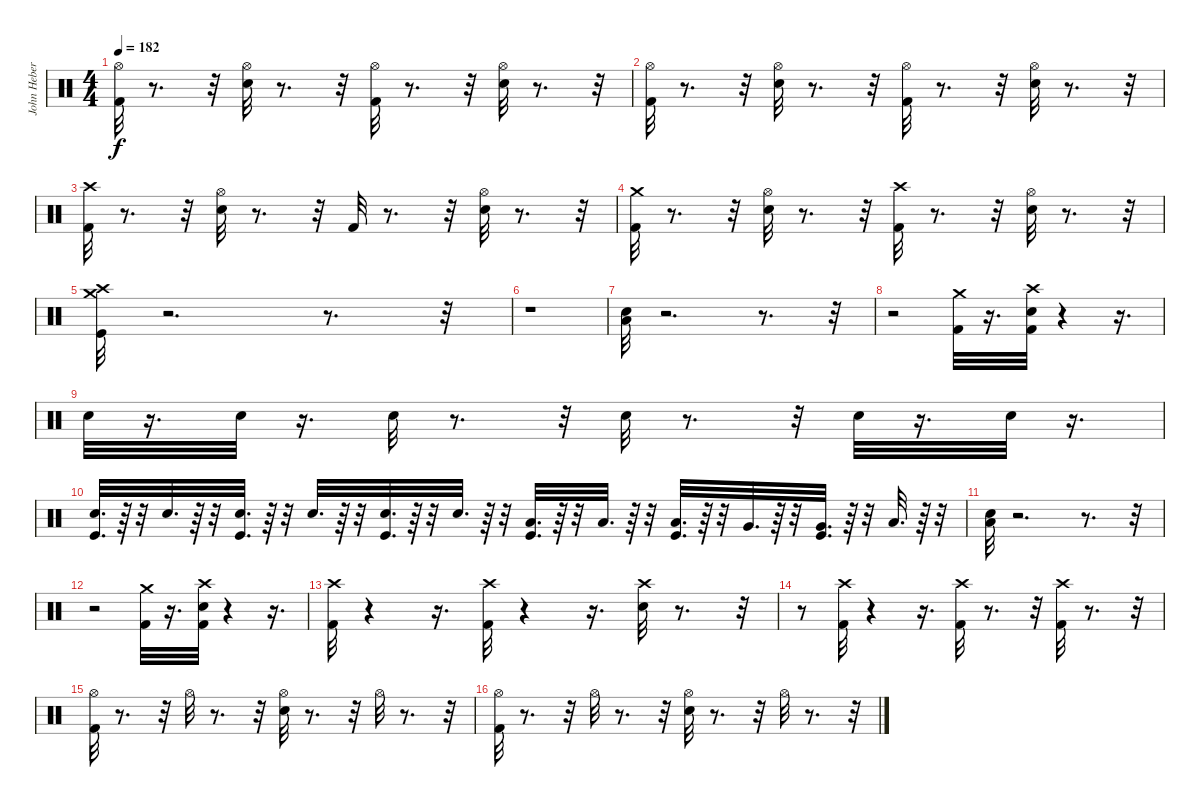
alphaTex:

\track ("John Hebert" "John Heber") {instrument percussion}
\staff {score}
\articulation defaults
\ts (4 4)
\tempo 182
\clef neutral
\ks c
("Hi-Hat (open)" "Kick (hit) 2").32{dy f} r.8{d} r.32 ("Hi-Hat (open)" "Snare (hit) 2").32 r.8{d} r.32 ("Hi-Hat (open)" "Kick (hit) 2").32 r.8{d} r.32 ("Hi-Hat (open)" "Snare (hit) 2").32 r.8{d} r.32 |
("Hi-Hat (open)" "Kick (hit) 2").32 r.8{d} r.32 ("Hi-Hat (open)" "Snare (hit) 2").32 r.8{d} r.32 ("Hi-Hat (open)" "Kick (hit) 2").32 r.8{d} r.32 ("Hi-Hat (open)" "Snare (hit) 2").32 r.8{d} r.32 |
("Kick (hit) 2" "Crash high (hit)").32 r.8{d} r.32 ("Snare (hit) 2" "Hi-Hat (open)").32 r.8{d} r.32 "Kick (hit) 2".32 r.8{d} r.32 ("Snare (hit) 2" "Hi-Hat (open)").32 r.8{d} r.32 |
("Kick (hit) 2" "Crash medium (hit)").32 r.8{d} r.32 ("Hi-Hat (open)" "Snare (hit) 2").32 r.8{d} r.32 ("Kick (hit) 2" "Crash high (hit)").32 r.8{d} r.32 ("Snare (hit) 2" "Hi-Hat (open)").32 r.8{d} r.32 |
("Crash high (hit)" "Kick (hit)" "Crash medium (hit)").32 r.2{d} r.8{d} r.32 |
r.1 |
("Snare (hit) 2" "Low Tom (hit)").32 r.2{d} r.8{d} r.32 |
r.2 ("Kick (hit) 2" "Crash medium (hit)").32 r.16{d} ("Kick (hit) 2" "Crash high (hit)" "Snare (hit) 2").32 r.4 r.16{d} |
"Snare (hit) 2".32 r.16{d} "Snare (hit) 2".32 r.16{d} "Snare (hit) 2".32 r.8{d} r.32 "Snare (hit) 2".32 r.8{d} r.32 "Snare (hit) 2".32 r.16{d} "Snare (hit) 2".32 r.16{d} |
("Kick (hit)" "Snare (hit) 2").32{d} r.64 r.32 "Snare (hit) 2".32{d} r.64 r.32 ("Kick (hit)" "Snare (hit) 2").32{d} r.64 r.32 "Snare (hit) 2".32{d} r.64 r.32 ("Kick (hit)" "Snare (hit) 2").32{d} r.64 r.32 "Snare (hit) 2".32{d} r.64 r.32 ("Kick (hit)" "Low Tom (hit)").32{d} r.64 r.32 "Low Tom (hit)".32{d} r.64 r.32 ("Kick (hit)" "Low Tom (hit)").32{d} r.64 r.32 "Very Low Tom (hit)".32{d} r.64 r.32 ("Kick (hit)" "Very Low Tom (hit)").32{d} r.64 r.32 "Low Floor Tom (hit)".32{d} r.64 r.32 |
("Snare (hit) 2" "Low Tom (hit)").32 r.2{d} r.8{d} r.32 |
r.2 ("Kick (hit) 2" "Crash medium (hit)").32 r.16{d} ("Snare (hit) 2" "Kick (hit) 2" "Crash high (hit)").32 r.4 r.16{d} |
("Crash high (hit)" "Kick (hit) 2").32 r.4 r.16{d} ("Crash high (hit)" "Kick (hit) 2").32 r.4 r.16{d} ("Crash high (hit)" "Snare (hit) 2").32 r.8{d} r.32 |
r.8 ("Crash high (hit)" "Kick (hit) 2").32 r.4 r.16{d} ("Kick (hit) 2" "Crash high (hit)").32 r.8{d} r.32 ("Kick (hit) 2" "Crash high (hit)").32 r.8{d} r.32 |
("Kick (hit) 2" "Hi-Hat (open)").32 r.8{d} r.32 "Hi-Hat (open)".32 r.8{d} r.32 ("Snare (hit) 2" "Hi-Hat (open)").32 r.8{d} r.32 "Hi-Hat (open)".32 r.8{d} r.32 |
("Kick (hit) 2" "Hi-Hat (open)").32 r.8{d} r.32 "Hi-Hat (open)".32 r.8{d} r.32 ("Snare (hit) 2" "Hi-Hat (open)").32 r.8{d} r.32 "Hi-Hat (open)".32 r.8{d} r.32
